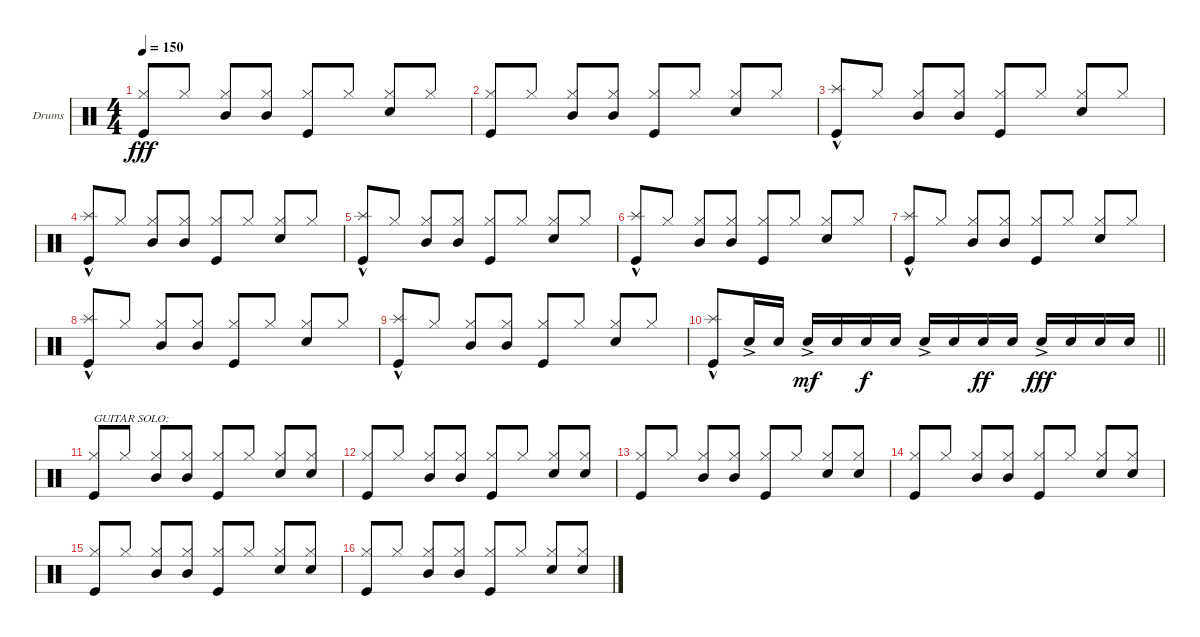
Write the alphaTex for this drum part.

\defaultSystemsLayout 4
\bracketExtendMode groupsimilarinstruments
\firstSystemTrackNameOrientation horizontal
\otherSystemsTrackNameOrientation horizontal
\track ("Drumkit" "Drums") {instrument percussion}
\staff {score}
\articulation defaults
\ts (4 4)
\tempo 150
\clef neutral
\ks c
("Kick (hit)" "Hi-Hat (closed)").8{dy fff beam invert} "Hi-Hat (closed)".8 ("Mid Tom (hit)" "Hi-Hat (closed)").8{beam invert} ("Mid Tom (hit)" "Hi-Hat (closed)").8 ("Hi-Hat (closed)" "Kick (hit)").8{beam invert} "Hi-Hat (closed)".8 ("Snare (hit) 2" "Hi-Hat (closed)").8{beam invert} "Hi-Hat (closed)".8 |
("Kick (hit)" "Hi-Hat (closed)").8{beam invert} "Hi-Hat (closed)".8 ("Mid Tom (hit)" "Hi-Hat (closed)").8{beam invert} ("Mid Tom (hit)" "Hi-Hat (closed)").8 ("Hi-Hat (closed)" "Kick (hit)").8{beam invert} "Hi-Hat (closed)".8 ("Snare (hit) 2" "Hi-Hat (closed)").8{beam invert} "Hi-Hat (closed)".8 |
("Kick (hit)" "Splash (hit)"{hac}).8 "Hi-Hat (closed)".8 ("Mid Tom (hit)" "Hi-Hat (closed)").8{beam invert} ("Mid Tom (hit)" "Hi-Hat (closed)").8 ("Hi-Hat (closed)" "Kick (hit)").8{beam invert} "Hi-Hat (closed)".8 ("Snare (hit) 2" "Hi-Hat (closed)").8{beam invert} "Hi-Hat (closed)".8 |
("Kick (hit)" "Splash (hit)"{hac}).8 "Hi-Hat (closed)".8 ("Mid Tom (hit)" "Hi-Hat (closed)").8{beam invert} ("Mid Tom (hit)" "Hi-Hat (closed)").8 ("Hi-Hat (closed)" "Kick (hit)").8{beam invert} "Hi-Hat (closed)".8 ("Snare (hit) 2" "Hi-Hat (closed)").8{beam invert} "Hi-Hat (closed)".8 |
("Kick (hit)" "Splash (hit)"{hac}).8 "Hi-Hat (closed)".8 ("Mid Tom (hit)" "Hi-Hat (closed)").8{beam invert} ("Mid Tom (hit)" "Hi-Hat (closed)").8 ("Hi-Hat (closed)" "Kick (hit)").8{beam invert} "Hi-Hat (closed)".8 ("Snare (hit) 2" "Hi-Hat (closed)").8{beam invert} "Hi-Hat (closed)".8 |
("Kick (hit)" "Splash (hit)"{hac}).8 "Hi-Hat (closed)".8 ("Mid Tom (hit)" "Hi-Hat (closed)").8{beam invert} ("Mid Tom (hit)" "Hi-Hat (closed)").8 ("Hi-Hat (closed)" "Kick (hit)").8{beam invert} "Hi-Hat (closed)".8 ("Snare (hit) 2" "Hi-Hat (closed)").8{beam invert} "Hi-Hat (closed)".8 |
("Kick (hit)" "Splash (hit)"{hac}).8 "Hi-Hat (closed)".8 ("Mid Tom (hit)" "Hi-Hat (closed)").8{beam invert} ("Mid Tom (hit)" "Hi-Hat (closed)").8 ("Hi-Hat (closed)" "Kick (hit)").8{beam invert} "Hi-Hat (closed)".8 ("Snare (hit) 2" "Hi-Hat (closed)").8{beam invert} "Hi-Hat (closed)".8 |
("Kick (hit)" "Splash (hit)"{hac}).8 "Hi-Hat (closed)".8 ("Mid Tom (hit)" "Hi-Hat (closed)").8{beam invert} ("Mid Tom (hit)" "Hi-Hat (closed)").8 ("Hi-Hat (closed)" "Kick (hit)").8{beam invert} "Hi-Hat (closed)".8 ("Snare (hit) 2" "Hi-Hat (closed)").8{beam invert} "Hi-Hat (closed)".8 |
("Kick (hit)" "Splash (hit)"{hac}).8 "Hi-Hat (closed)".8 ("Mid Tom (hit)" "Hi-Hat (closed)").8{beam invert} ("Mid Tom (hit)" "Hi-Hat (closed)").8 ("Hi-Hat (closed)" "Kick (hit)").8{beam invert} "Hi-Hat (closed)".8 ("Snare (hit) 2" "Hi-Hat (closed)").8{beam invert} "Hi-Hat (closed)".8 |
\barLineRight lightlight
("Kick (hit)" "Splash (hit)"{hac}).8 "Snare (hit) 2"{ac}.16 "Snare (hit) 2".16 "Snare (hit) 2"{ac}.16{dy mf beam invert} "Snare (hit) 2".16 "Snare (hit) 2".16{dy f} "Snare (hit) 2".16 "Snare (hit) 2"{ac}.16{beam invert} "Snare (hit) 2".16 "Snare (hit) 2".16{dy ff} "Snare (hit) 2".16 "Snare (hit) 2"{ac}.16{dy fff beam invert} "Snare (hit) 2".16 "Snare (hit) 2".16 "Snare (hit) 2".16 |
("Kick (hit)" "Hi-Hat (closed)").8{txt "GUITAR SOLO:" beam invert} "Hi-Hat (closed)".8 ("Mid Tom (hit)" "Hi-Hat (closed)").8{beam invert} ("Mid Tom (hit)" "Hi-Hat (closed)").8 ("Hi-Hat (closed)" "Kick (hit)").8{beam invert} "Hi-Hat (closed)".8 ("Snare (hit) 2" "Hi-Hat (closed)").8{beam invert} ("Snare (hit) 2" "Hi-Hat (closed)").8 |
("Kick (hit)" "Hi-Hat (closed)").8{beam invert} "Hi-Hat (closed)".8 ("Mid Tom (hit)" "Hi-Hat (closed)").8{beam invert} ("Mid Tom (hit)" "Hi-Hat (closed)").8 ("Hi-Hat (closed)" "Kick (hit)").8{beam invert} "Hi-Hat (closed)".8 ("Snare (hit) 2" "Hi-Hat (closed)").8{beam invert} ("Snare (hit) 2" "Hi-Hat (closed)").8 |
("Kick (hit)" "Hi-Hat (closed)").8{beam invert} "Hi-Hat (closed)".8 ("Mid Tom (hit)" "Hi-Hat (closed)").8{beam invert} ("Mid Tom (hit)" "Hi-Hat (closed)").8 ("Hi-Hat (closed)" "Kick (hit)").8{beam invert} "Hi-Hat (closed)".8 ("Snare (hit) 2" "Hi-Hat (closed)").8{beam invert} ("Snare (hit) 2" "Hi-Hat (closed)").8 |
("Kick (hit)" "Hi-Hat (closed)").8{beam invert} "Hi-Hat (closed)".8 ("Mid Tom (hit)" "Hi-Hat (closed)").8{beam invert} ("Mid Tom (hit)" "Hi-Hat (closed)").8 ("Hi-Hat (closed)" "Kick (hit)").8{beam invert} "Hi-Hat (closed)".8 ("Snare (hit) 2" "Hi-Hat (closed)").8{beam invert} ("Snare (hit) 2" "Hi-Hat (closed)").8 |
("Kick (hit)" "Hi-Hat (closed)").8{beam invert} "Hi-Hat (closed)".8 ("Mid Tom (hit)" "Hi-Hat (closed)").8{beam invert} ("Mid Tom (hit)" "Hi-Hat (closed)").8 ("Hi-Hat (closed)" "Kick (hit)").8{beam invert} "Hi-Hat (closed)".8 ("Snare (hit) 2" "Hi-Hat (closed)").8{beam invert} ("Snare (hit) 2" "Hi-Hat (closed)").8 |
("Kick (hit)" "Hi-Hat (closed)").8{beam invert} "Hi-Hat (closed)".8 ("Mid Tom (hit)" "Hi-Hat (closed)").8{beam invert} ("Mid Tom (hit)" "Hi-Hat (closed)").8 ("Hi-Hat (closed)" "Kick (hit)").8{beam invert} "Hi-Hat (closed)".8 ("Snare (hit) 2" "Hi-Hat (closed)").8{beam invert} ("Snare (hit) 2" "Hi-Hat (closed)").8
